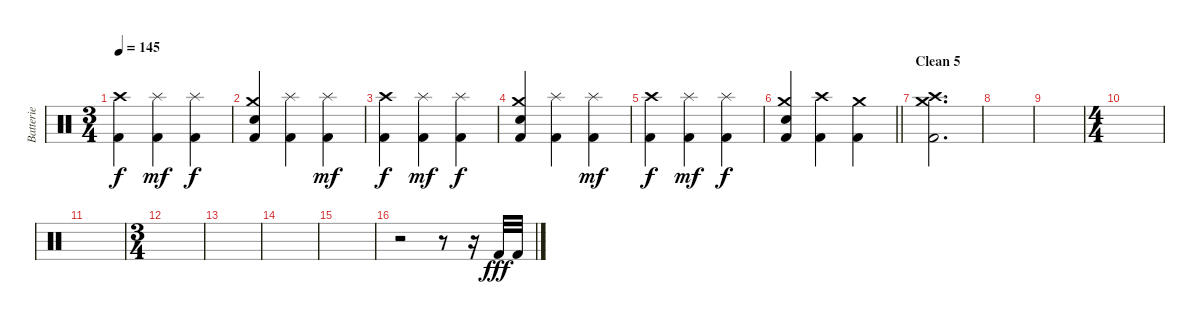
\track ("Batterie" "Batterie") {instrument percussion}
\staff {score}
\articulation defaults
\ts (3 4)
\tempo 145
\clef neutral
\ks c
("Crash high (hit)" "Kick (hit) 2").4{dy f} ("Splash (hit)" "Kick (hit) 2").4{dy mf} ("Splash (hit)" "Kick (hit) 2").4{dy f} |
("Crash medium (hit)" "Electric Snare (hit)" "Kick (hit) 2").4 ("Splash (hit)" "Kick (hit) 2").4 ("Splash (hit)" "Kick (hit) 2").4{dy mf} |
("Crash high (hit)" "Kick (hit) 2").4{dy f} ("Splash (hit)" "Kick (hit) 2").4{dy mf} ("Splash (hit)" "Kick (hit) 2").4{dy f} |
("Crash medium (hit)" "Electric Snare (hit)" "Kick (hit) 2").4 ("Splash (hit)" "Kick (hit) 2").4 ("Splash (hit)" "Kick (hit) 2").4{dy mf} |
("Crash high (hit)" "Kick (hit) 2").4{dy f} ("Splash (hit)" "Kick (hit) 2").4{dy mf} ("Splash (hit)" "Kick (hit) 2").4{dy f} |
\barLineRight lightlight
("Crash medium (hit)" "Electric Snare (hit)" "Kick (hit) 2").4 ("Crash high (hit)" "Kick (hit) 2").4 ("Crash medium (hit)" "Kick (hit) 2").4 |
\section ("" "Clean 5")
("Crash high (hit)" "Crash medium (hit)" "Kick (hit) 2").2{d} |
|
|
\ts (4 4)
|
|
\ts (3 4)
|
|
|
|
r.2 r.8 r.16 "Kick (hit) 2".32{dy fff} "Kick (hit) 2".32
